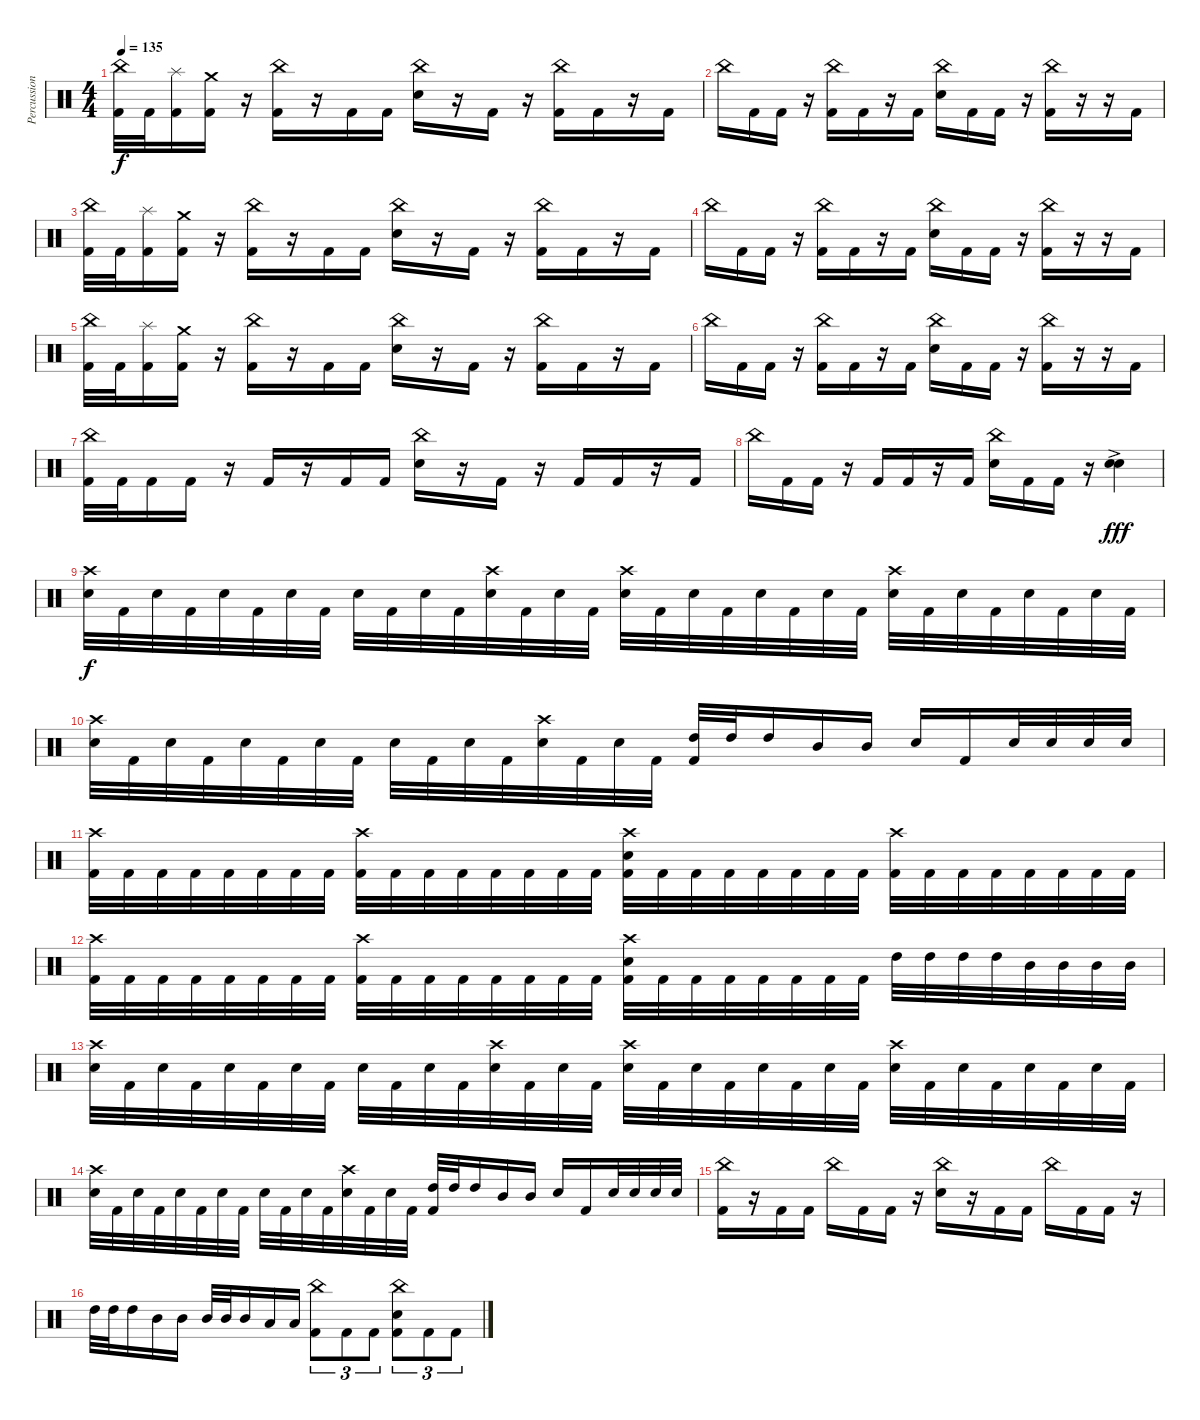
\track ("Percussion" "Percussion") {instrument percussion}
\staff {score}
\articulation defaults
\ts (4 4)
\tempo 135
\clef neutral
\ks c
("China (hit)" "Kick (hit) 2").32{dy f} "Kick (hit) 2".32 ("Splash (hit)" "Kick (hit) 2").16 ("Crash medium (hit)" "Kick (hit) 2").16 r.16 ("China (hit)" "Kick (hit) 2").16 r.16 "Kick (hit) 2".16 "Kick (hit) 2".16 ("China (hit)" "Electric Snare (hit)").16 r.16 "Kick (hit) 2".16 r.16 ("China (hit)" "Kick (hit) 2").16 "Kick (hit) 2".16 r.16 "Kick (hit) 2".16 |
"China (hit)".16 "Kick (hit) 2".16 "Kick (hit) 2".16 r.16 ("China (hit)" "Kick (hit) 2").16 "Kick (hit) 2".16 r.16 "Kick (hit) 2".16 ("China (hit)" "Electric Snare (hit)").16 "Kick (hit) 2".16 "Kick (hit) 2".16 r.16 ("China (hit)" "Kick (hit) 2").16 r.16 r.16 "Kick (hit) 2".16 |
("China (hit)" "Kick (hit) 2").32 "Kick (hit) 2".32 ("Splash (hit)" "Kick (hit) 2").16 ("Crash medium (hit)" "Kick (hit) 2").16 r.16 ("China (hit)" "Kick (hit) 2").16 r.16 "Kick (hit) 2".16 "Kick (hit) 2".16 ("China (hit)" "Electric Snare (hit)").16 r.16 "Kick (hit) 2".16 r.16 ("China (hit)" "Kick (hit) 2").16 "Kick (hit) 2".16 r.16 "Kick (hit) 2".16 |
"China (hit)".16 "Kick (hit) 2".16 "Kick (hit) 2".16 r.16 ("China (hit)" "Kick (hit) 2").16 "Kick (hit) 2".16 r.16 "Kick (hit) 2".16 ("China (hit)" "Electric Snare (hit)").16 "Kick (hit) 2".16 "Kick (hit) 2".16 r.16 ("China (hit)" "Kick (hit) 2").16 r.16 r.16 "Kick (hit) 2".16 |
("China (hit)" "Kick (hit) 2").32 "Kick (hit) 2".32 ("Splash (hit)" "Kick (hit) 2").16 ("Crash medium (hit)" "Kick (hit) 2").16 r.16 ("China (hit)" "Kick (hit) 2").16 r.16 "Kick (hit) 2".16 "Kick (hit) 2".16 ("China (hit)" "Electric Snare (hit)").16 r.16 "Kick (hit) 2".16 r.16 ("China (hit)" "Kick (hit) 2").16 "Kick (hit) 2".16 r.16 "Kick (hit) 2".16 |
"China (hit)".16 "Kick (hit) 2".16 "Kick (hit) 2".16 r.16 ("China (hit)" "Kick (hit) 2").16 "Kick (hit) 2".16 r.16 "Kick (hit) 2".16 ("China (hit)" "Electric Snare (hit)").16 "Kick (hit) 2".16 "Kick (hit) 2".16 r.16 ("China (hit)" "Kick (hit) 2").16 r.16 r.16 "Kick (hit) 2".16 |
("China (hit)" "Kick (hit) 2").32 "Kick (hit) 2".32 "Kick (hit) 2".16 "Kick (hit) 2".16 r.16 "Kick (hit) 2".16 r.16 "Kick (hit) 2".16 "Kick (hit) 2".16 ("China (hit)" "Electric Snare (hit)").16 r.16 "Kick (hit) 2".16 r.16 "Kick (hit) 2".16 "Kick (hit) 2".16 r.16 "Kick (hit) 2".16 |
"China (hit)".16 "Kick (hit) 2".16 "Kick (hit) 2".16 r.16 "Kick (hit) 2".16 "Kick (hit) 2".16 r.16 "Kick (hit) 2".16 ("China (hit)" "Electric Snare (hit)").16 "Kick (hit) 2".16 "Kick (hit) 2".16 r.16 ("Electric Snare (hit)"{ac} "Electric Snare (hit)"{ac}).4{dy fff} |
("Crash high (hit)" "Electric Snare (hit)").32{dy f} "Kick (hit) 2".32 "Electric Snare (hit)".32 "Kick (hit) 2".32 "Electric Snare (hit)".32 "Kick (hit) 2".32 "Electric Snare (hit)".32 "Kick (hit) 2".32 "Electric Snare (hit)".32 "Kick (hit) 2".32 "Electric Snare (hit)".32 "Kick (hit) 2".32 ("Crash high (hit)" "Electric Snare (hit)").32 "Kick (hit) 2".32 "Electric Snare (hit)".32 "Kick (hit) 2".32 ("Crash high (hit)" "Electric Snare (hit)").32 "Kick (hit) 2".32 "Electric Snare (hit)".32 "Kick (hit) 2".32 "Electric Snare (hit)".32 "Kick (hit) 2".32 "Electric Snare (hit)".32 "Kick (hit) 2".32 ("Crash high (hit)" "Electric Snare (hit)").32 "Kick (hit) 2".32 "Electric Snare (hit)".32 "Kick (hit) 2".32 "Electric Snare (hit)".32 "Kick (hit) 2".32 "Electric Snare (hit)".32 "Kick (hit) 2".32 |
("Crash high (hit)" "Electric Snare (hit)").32 "Kick (hit) 2".32 "Electric Snare (hit)".32 "Kick (hit) 2".32 "Electric Snare (hit)".32 "Kick (hit) 2".32 "Electric Snare (hit)".32 "Kick (hit) 2".32 "Electric Snare (hit)".32 "Kick (hit) 2".32 "Electric Snare (hit)".32 "Kick (hit) 2".32 ("Crash high (hit)" "Electric Snare (hit)").32 "Kick (hit) 2".32 "Electric Snare (hit)".32 "Kick (hit) 2".32 ("High Tom (hit)" "Kick (hit) 2").32 "High Tom (hit)".32 "High Tom (hit)".16 "Mid Tom (hit)".16 "Mid Tom (hit)".16 "Electric Snare (hit)".16 "Kick (hit) 2".16 "Electric Snare (hit)".32 "Electric Snare (hit)".32 "Electric Snare (hit)".32 "Electric Snare (hit)".32 |
("Crash high (hit)" "Kick (hit) 2").32 "Kick (hit) 2".32 "Kick (hit) 2".32 "Kick (hit) 2".32 "Kick (hit) 2".32 "Kick (hit) 2".32 "Kick (hit) 2".32 "Kick (hit) 2".32 ("Crash high (hit)" "Kick (hit) 2").32 "Kick (hit) 2".32 "Kick (hit) 2".32 "Kick (hit) 2".32 "Kick (hit) 2".32 "Kick (hit) 2".32 "Kick (hit) 2".32 "Kick (hit) 2".32 ("Crash high (hit)" "Electric Snare (hit)" "Kick (hit) 2").32 "Kick (hit) 2".32 "Kick (hit) 2".32 "Kick (hit) 2".32 "Kick (hit) 2".32 "Kick (hit) 2".32 "Kick (hit) 2".32 "Kick (hit) 2".32 ("Crash high (hit)" "Kick (hit) 2").32 "Kick (hit) 2".32 "Kick (hit) 2".32 "Kick (hit) 2".32 "Kick (hit) 2".32 "Kick (hit) 2".32 "Kick (hit) 2".32 "Kick (hit) 2".32 |
("Crash high (hit)" "Kick (hit) 2").32 "Kick (hit) 2".32 "Kick (hit) 2".32 "Kick (hit) 2".32 "Kick (hit) 2".32 "Kick (hit) 2".32 "Kick (hit) 2".32 "Kick (hit) 2".32 ("Crash high (hit)" "Kick (hit) 2").32 "Kick (hit) 2".32 "Kick (hit) 2".32 "Kick (hit) 2".32 "Kick (hit) 2".32 "Kick (hit) 2".32 "Kick (hit) 2".32 "Kick (hit) 2".32 ("Crash high (hit)" "Electric Snare (hit)" "Kick (hit) 2").32 "Kick (hit) 2".32 "Kick (hit) 2".32 "Kick (hit) 2".32 "Kick (hit) 2".32 "Kick (hit) 2".32 "Kick (hit) 2".32 "Kick (hit) 2".32 "High Tom (hit)".32 "High Tom (hit)".32 "High Tom (hit)".32 "High Tom (hit)".32 "Mid Tom (hit)".32 "Mid Tom (hit)".32 "Mid Tom (hit)".32 "Mid Tom (hit)".32 |
("Crash high (hit)" "Electric Snare (hit)").32 "Kick (hit) 2".32 "Electric Snare (hit)".32 "Kick (hit) 2".32 "Electric Snare (hit)".32 "Kick (hit) 2".32 "Electric Snare (hit)".32 "Kick (hit) 2".32 "Electric Snare (hit)".32 "Kick (hit) 2".32 "Electric Snare (hit)".32 "Kick (hit) 2".32 ("Crash high (hit)" "Electric Snare (hit)").32 "Kick (hit) 2".32 "Electric Snare (hit)".32 "Kick (hit) 2".32 ("Crash high (hit)" "Electric Snare (hit)").32 "Kick (hit) 2".32 "Electric Snare (hit)".32 "Kick (hit) 2".32 "Electric Snare (hit)".32 "Kick (hit) 2".32 "Electric Snare (hit)".32 "Kick (hit) 2".32 ("Crash high (hit)" "Electric Snare (hit)").32 "Kick (hit) 2".32 "Electric Snare (hit)".32 "Kick (hit) 2".32 "Electric Snare (hit)".32 "Kick (hit) 2".32 "Electric Snare (hit)".32 "Kick (hit) 2".32 |
("Crash high (hit)" "Electric Snare (hit)").32 "Kick (hit) 2".32 "Electric Snare (hit)".32 "Kick (hit) 2".32 "Electric Snare (hit)".32 "Kick (hit) 2".32 "Electric Snare (hit)".32 "Kick (hit) 2".32 "Electric Snare (hit)".32 "Kick (hit) 2".32 "Electric Snare (hit)".32 "Kick (hit) 2".32 ("Crash high (hit)" "Electric Snare (hit)").32 "Kick (hit) 2".32 "Electric Snare (hit)".32 "Kick (hit) 2".32 ("High Tom (hit)" "Kick (hit) 2").32 "High Tom (hit)".32 "High Tom (hit)".16 "Mid Tom (hit)".16 "Mid Tom (hit)".16 "Electric Snare (hit)".16 "Kick (hit) 2".16 "Electric Snare (hit)".32 "Electric Snare (hit)".32 "Electric Snare (hit)".32 "Electric Snare (hit)".32 |
("China (hit)" "Kick (hit) 2").16 r.16 "Kick (hit) 2".16 "Kick (hit) 2".16 "China (hit)".16 "Kick (hit) 2".16 "Kick (hit) 2".16 r.16 ("China (hit)" "Electric Snare (hit)").16 r.16 "Kick (hit) 2".16 "Kick (hit) 2".16 "China (hit)".16 "Kick (hit) 2".16 "Kick (hit) 2".16 r.16 |
"High Tom (hit)".32 "High Tom (hit)".32 "High Tom (hit)".16 "Mid Tom (hit)".16 "Mid Tom (hit)".16 "Mid Tom (hit)".32 "Mid Tom (hit)".32 "Mid Tom (hit)".16 "Low Tom (hit)".16 "Low Tom (hit)".16 ("China (hit)" "Kick (hit) 2").8{tu (3 2)} "Kick (hit) 2".8{tu (3 2)} "Kick (hit) 2".8{tu (3 2)} ("China (hit)" "Electric Snare (hit)" "Kick (hit) 2").8{tu (3 2)} "Kick (hit) 2".8{tu (3 2)} "Kick (hit) 2".8{tu (3 2)}
